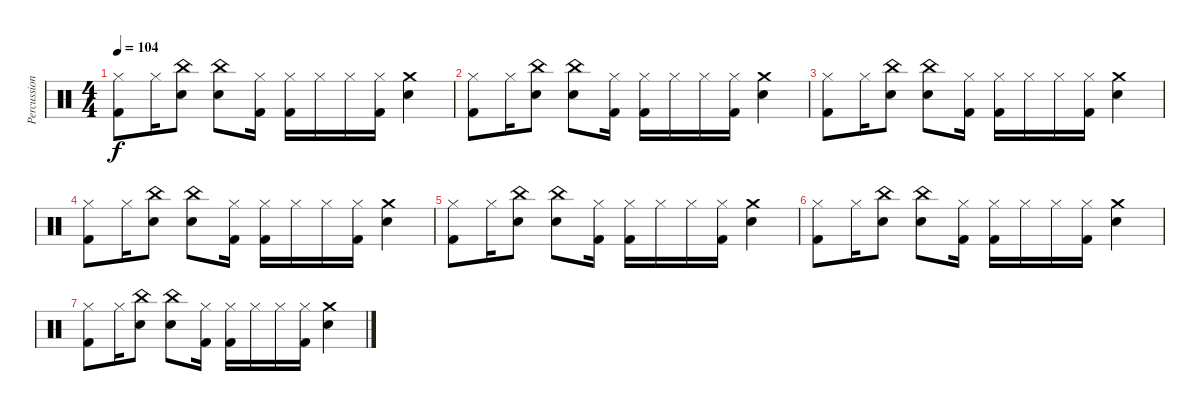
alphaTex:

\track ("Percussion" "Percussion") {instrument percussion}
\staff {score}
\articulation defaults
\ts (4 4)
\tempo 104
\clef neutral
\ks c
("Hi-Hat (closed)" "Kick (hit) 2").8{dy f} "Hi-Hat (closed)".16 ("Snare (hit) 2" "China (hit)").8 ("Snare (hit) 2" "China (hit)").8 ("Hi-Hat (closed)" "Kick (hit) 2").16 ("Hi-Hat (closed)" "Kick (hit) 2").16 "Hi-Hat (closed)".16 "Hi-Hat (closed)".16 ("Hi-Hat (closed)" "Kick (hit) 2").16 ("Crash medium (hit)" "Snare (hit) 2").4 |
("Hi-Hat (closed)" "Kick (hit) 2").8 "Hi-Hat (closed)".16 ("Snare (hit) 2" "China (hit)").8 ("Snare (hit) 2" "China (hit)").8 ("Hi-Hat (closed)" "Kick (hit) 2").16 ("Hi-Hat (closed)" "Kick (hit) 2").16 "Hi-Hat (closed)".16 "Hi-Hat (closed)".16 ("Hi-Hat (closed)" "Kick (hit) 2").16 ("Crash medium (hit)" "Snare (hit) 2").4 |
("Hi-Hat (closed)" "Kick (hit) 2").8 "Hi-Hat (closed)".16 ("Snare (hit) 2" "China (hit)").8 ("Snare (hit) 2" "China (hit)").8 ("Hi-Hat (closed)" "Kick (hit) 2").16 ("Hi-Hat (closed)" "Kick (hit) 2").16 "Hi-Hat (closed)".16 "Hi-Hat (closed)".16 ("Hi-Hat (closed)" "Kick (hit) 2").16 ("Crash medium (hit)" "Snare (hit) 2").4 |
("Hi-Hat (closed)" "Kick (hit) 2").8 "Hi-Hat (closed)".16 ("Snare (hit) 2" "China (hit)").8 ("Snare (hit) 2" "China (hit)").8 ("Hi-Hat (closed)" "Kick (hit) 2").16 ("Hi-Hat (closed)" "Kick (hit) 2").16 "Hi-Hat (closed)".16 "Hi-Hat (closed)".16 ("Hi-Hat (closed)" "Kick (hit) 2").16 ("Crash medium (hit)" "Snare (hit) 2").4 |
("Hi-Hat (closed)" "Kick (hit) 2").8 "Hi-Hat (closed)".16 ("Snare (hit) 2" "China (hit)").8 ("Snare (hit) 2" "China (hit)").8 ("Hi-Hat (closed)" "Kick (hit) 2").16 ("Hi-Hat (closed)" "Kick (hit) 2").16 "Hi-Hat (closed)".16 "Hi-Hat (closed)".16 ("Hi-Hat (closed)" "Kick (hit) 2").16 ("Crash medium (hit)" "Snare (hit) 2").4 |
("Hi-Hat (closed)" "Kick (hit) 2").8 "Hi-Hat (closed)".16 ("Snare (hit) 2" "China (hit)").8 ("Snare (hit) 2" "China (hit)").8 ("Hi-Hat (closed)" "Kick (hit) 2").16 ("Hi-Hat (closed)" "Kick (hit) 2").16 "Hi-Hat (closed)".16 "Hi-Hat (closed)".16 ("Hi-Hat (closed)" "Kick (hit) 2").16 ("Crash medium (hit)" "Snare (hit) 2").4 |
("Hi-Hat (closed)" "Kick (hit) 2").8 "Hi-Hat (closed)".16 ("Snare (hit) 2" "China (hit)").8 ("Snare (hit) 2" "China (hit)").8 ("Hi-Hat (closed)" "Kick (hit) 2").16 ("Hi-Hat (closed)" "Kick (hit) 2").16 "Hi-Hat (closed)".16 "Hi-Hat (closed)".16 ("Hi-Hat (closed)" "Kick (hit) 2").16 ("Crash medium (hit)" "Snare (hit) 2").4
